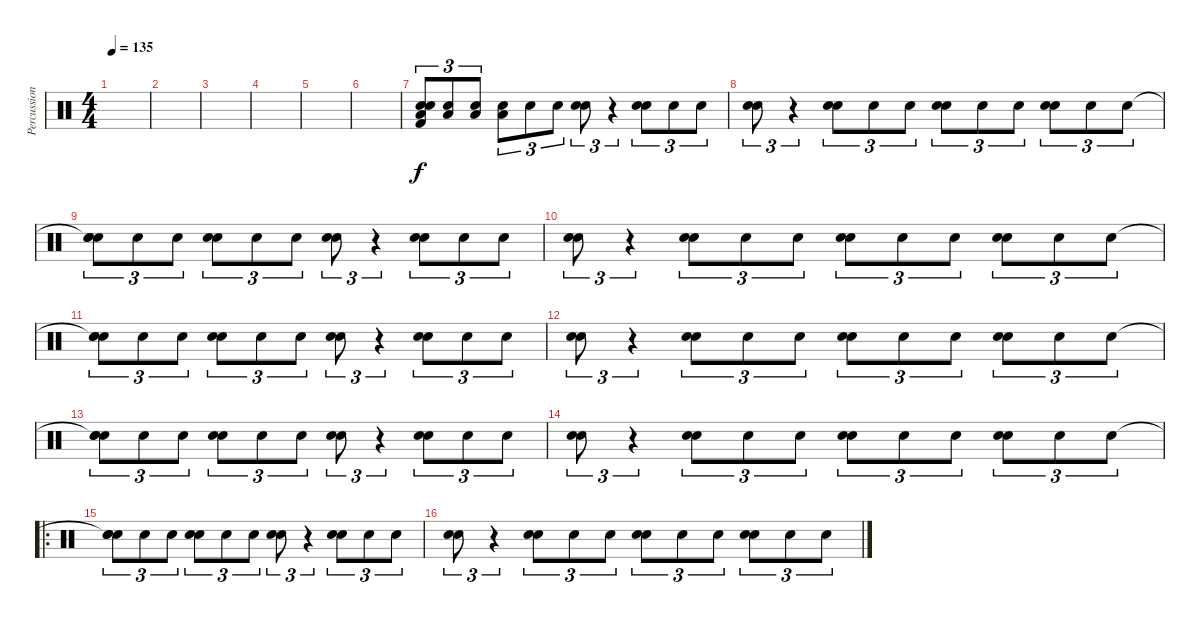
\track ("Percussion" "Percussion") {instrument percussion bank 5}
\staff {score}
\articulation defaults
\ts (4 4)
\tempo 135
\clef neutral
\ks c
|
|
|
|
|
|
("Snare (hit)" "Low Tom (hit)" "Electric Snare (hit)" "Kick (hit) 2").8{tu (3 2) volume 3} ("Low Tom (hit)" "Electric Snare (hit)").8{tu (3 2)} ("Low Tom (hit)" "Electric Snare (hit)").8{tu (3 2)} ("Low Tom (hit)" "Electric Snare (hit)").8{tu (3 2)} "Electric Snare (hit)".8{tu (3 2)} "Electric Snare (hit)".8{tu (3 2)} ("Hand Clap (hit)" "Electric Snare (hit)").8{tu (3 2)} r.4{tu (3 2)} ("Hand Clap (hit)" "Electric Snare (hit)").8{tu (3 2)} "Electric Snare (hit)".8{tu (3 2)} "Electric Snare (hit)".8{tu (3 2)} |
("Hand Clap (hit)" "Electric Snare (hit)").8{tu (3 2)} r.4{tu (3 2)} ("Hand Clap (hit)" "Electric Snare (hit)").8{tu (3 2)} "Electric Snare (hit)".8{tu (3 2)} "Electric Snare (hit)".8{tu (3 2)} ("Hand Clap (hit)" "Electric Snare (hit)").8{tu (3 2)} "Electric Snare (hit)".8{tu (3 2)} "Electric Snare (hit)".8{tu (3 2)} ("Hand Clap (hit)" "Electric Snare (hit)").8{tu (3 2)} "Electric Snare (hit)".8{tu (3 2)} "Electric Snare (hit)".8{tu (3 2)} |
("Snare (hit)"{t} "Hand Clap (hit)" "Electric Snare (hit)").8{tu (3 2)} "Electric Snare (hit)".8{tu (3 2)} "Electric Snare (hit)".8{tu (3 2)} ("Hand Clap (hit)" "Electric Snare (hit)").8{tu (3 2)} "Electric Snare (hit)".8{tu (3 2)} "Electric Snare (hit)".8{tu (3 2)} ("Hand Clap (hit)" "Electric Snare (hit)").8{tu (3 2)} r.4{tu (3 2)} ("Hand Clap (hit)" "Electric Snare (hit)").8{tu (3 2)} "Electric Snare (hit)".8{tu (3 2)} "Electric Snare (hit)".8{tu (3 2)} |
("Hand Clap (hit)" "Electric Snare (hit)").8{tu (3 2)} r.4{tu (3 2)} ("Hand Clap (hit)" "Electric Snare (hit)").8{tu (3 2)} "Electric Snare (hit)".8{tu (3 2)} "Electric Snare (hit)".8{tu (3 2)} ("Hand Clap (hit)" "Electric Snare (hit)").8{tu (3 2)} "Electric Snare (hit)".8{tu (3 2)} "Electric Snare (hit)".8{tu (3 2)} ("Hand Clap (hit)" "Electric Snare (hit)").8{tu (3 2)} "Electric Snare (hit)".8{tu (3 2)} "Electric Snare (hit)".8{tu (3 2)} |
("Snare (hit)"{t} "Hand Clap (hit)" "Electric Snare (hit)").8{tu (3 2)} "Electric Snare (hit)".8{tu (3 2)} "Electric Snare (hit)".8{tu (3 2)} ("Hand Clap (hit)" "Electric Snare (hit)").8{tu (3 2)} "Electric Snare (hit)".8{tu (3 2)} "Electric Snare (hit)".8{tu (3 2)} ("Hand Clap (hit)" "Electric Snare (hit)").8{tu (3 2)} r.4{tu (3 2)} ("Hand Clap (hit)" "Electric Snare (hit)").8{tu (3 2)} "Electric Snare (hit)".8{tu (3 2)} "Electric Snare (hit)".8{tu (3 2)} |
("Hand Clap (hit)" "Electric Snare (hit)").8{tu (3 2)} r.4{tu (3 2)} ("Hand Clap (hit)" "Electric Snare (hit)").8{tu (3 2)} "Electric Snare (hit)".8{tu (3 2)} "Electric Snare (hit)".8{tu (3 2)} ("Hand Clap (hit)" "Electric Snare (hit)").8{tu (3 2)} "Electric Snare (hit)".8{tu (3 2)} "Electric Snare (hit)".8{tu (3 2)} ("Hand Clap (hit)" "Electric Snare (hit)").8{tu (3 2)} "Electric Snare (hit)".8{tu (3 2)} "Electric Snare (hit)".8{tu (3 2)} |
("Snare (hit)"{t} "Hand Clap (hit)" "Electric Snare (hit)").8{tu (3 2) volume 10} "Electric Snare (hit)".8{tu (3 2)} "Electric Snare (hit)".8{tu (3 2)} ("Hand Clap (hit)" "Electric Snare (hit)").8{tu (3 2)} "Electric Snare (hit)".8{tu (3 2)} "Electric Snare (hit)".8{tu (3 2)} ("Hand Clap (hit)" "Electric Snare (hit)").8{tu (3 2)} r.4{tu (3 2)} ("Hand Clap (hit)" "Electric Snare (hit)").8{tu (3 2)} "Electric Snare (hit)".8{tu (3 2)} "Electric Snare (hit)".8{tu (3 2)} |
("Hand Clap (hit)" "Electric Snare (hit)").8{tu (3 2)} r.4{tu (3 2)} ("Hand Clap (hit)" "Electric Snare (hit)").8{tu (3 2)} "Electric Snare (hit)".8{tu (3 2)} "Electric Snare (hit)".8{tu (3 2)} ("Hand Clap (hit)" "Electric Snare (hit)").8{tu (3 2)} "Electric Snare (hit)".8{tu (3 2)} "Electric Snare (hit)".8{tu (3 2)} ("Hand Clap (hit)" "Electric Snare (hit)").8{tu (3 2)} "Electric Snare (hit)".8{tu (3 2)} "Electric Snare (hit)".8{tu (3 2)} |
\ro
("Snare (hit)"{t} "Hand Clap (hit)" "Electric Snare (hit)").8{tu (3 2)} "Electric Snare (hit)".8{tu (3 2)} "Electric Snare (hit)".8{tu (3 2)} ("Hand Clap (hit)" "Electric Snare (hit)").8{tu (3 2)} "Electric Snare (hit)".8{tu (3 2)} "Electric Snare (hit)".8{tu (3 2)} ("Hand Clap (hit)" "Electric Snare (hit)").8{tu (3 2)} r.4{tu (3 2)} ("Hand Clap (hit)" "Electric Snare (hit)").8{tu (3 2)} "Electric Snare (hit)".8{tu (3 2)} "Electric Snare (hit)".8{tu (3 2)} |
("Hand Clap (hit)" "Electric Snare (hit)").8{tu (3 2)} r.4{tu (3 2)} ("Hand Clap (hit)" "Electric Snare (hit)").8{tu (3 2)} "Electric Snare (hit)".8{tu (3 2)} "Electric Snare (hit)".8{tu (3 2)} ("Hand Clap (hit)" "Electric Snare (hit)").8{tu (3 2)} "Electric Snare (hit)".8{tu (3 2)} "Electric Snare (hit)".8{tu (3 2)} ("Hand Clap (hit)" "Electric Snare (hit)").8{tu (3 2)} "Electric Snare (hit)".8{tu (3 2)} "Electric Snare (hit)".8{tu (3 2)}
